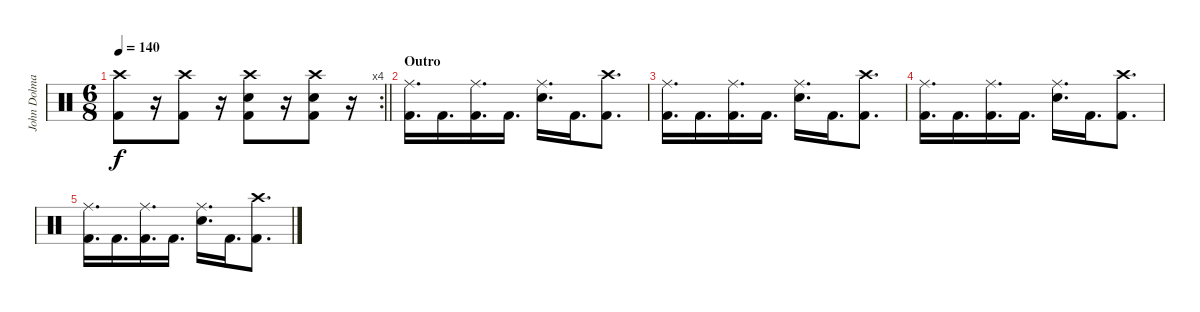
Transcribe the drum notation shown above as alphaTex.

\track ("John Dolmayan" "John Dolma") {instrument percussion}
\staff {score}
\articulation defaults
\rc 4
\ts (6 8)
\tempo 140
\clef neutral
\barLineRight lightlight
\ks c
("Crash high (hit)" "Kick (hit) 2").8{dy f} r.16 ("Crash high (hit)" "Kick (hit) 2").8 r.16 ("Electric Snare (hit)" "Crash high (hit)" "Kick (hit) 2").8 r.16 ("Electric Snare (hit)" "Crash high (hit)" "Kick (hit) 2").8 r.16 |
\section ("" "Outro")
("Ride (middle)" "Kick (hit) 2").16{d} "Kick (hit) 2".16{d} ("Ride (middle)" "Kick (hit) 2").16{d} "Kick (hit) 2".16{d} ("Ride (middle)" "Electric Snare (hit)").16{d} "Kick (hit) 2".16{d} ("Crash high (hit)" "Kick (hit) 2").8{d} |
("Ride (middle)" "Kick (hit) 2").16{d} "Kick (hit) 2".16{d} ("Ride (middle)" "Kick (hit) 2").16{d} "Kick (hit) 2".16{d} ("Ride (middle)" "Electric Snare (hit)").16{d} "Kick (hit) 2".16{d} ("Crash high (hit)" "Kick (hit) 2").8{d} |
("Ride (middle)" "Kick (hit) 2").16{d} "Kick (hit) 2".16{d} ("Ride (middle)" "Kick (hit) 2").16{d} "Kick (hit) 2".16{d} ("Ride (middle)" "Electric Snare (hit)").16{d} "Kick (hit) 2".16{d} ("Crash high (hit)" "Kick (hit) 2").8{d} |
("Ride (middle)" "Kick (hit) 2").16{d} "Kick (hit) 2".16{d} ("Ride (middle)" "Kick (hit) 2").16{d} "Kick (hit) 2".16{d} ("Ride (middle)" "Electric Snare (hit)").16{d} "Kick (hit) 2".16{d} ("Crash high (hit)" "Kick (hit) 2").8{d}
